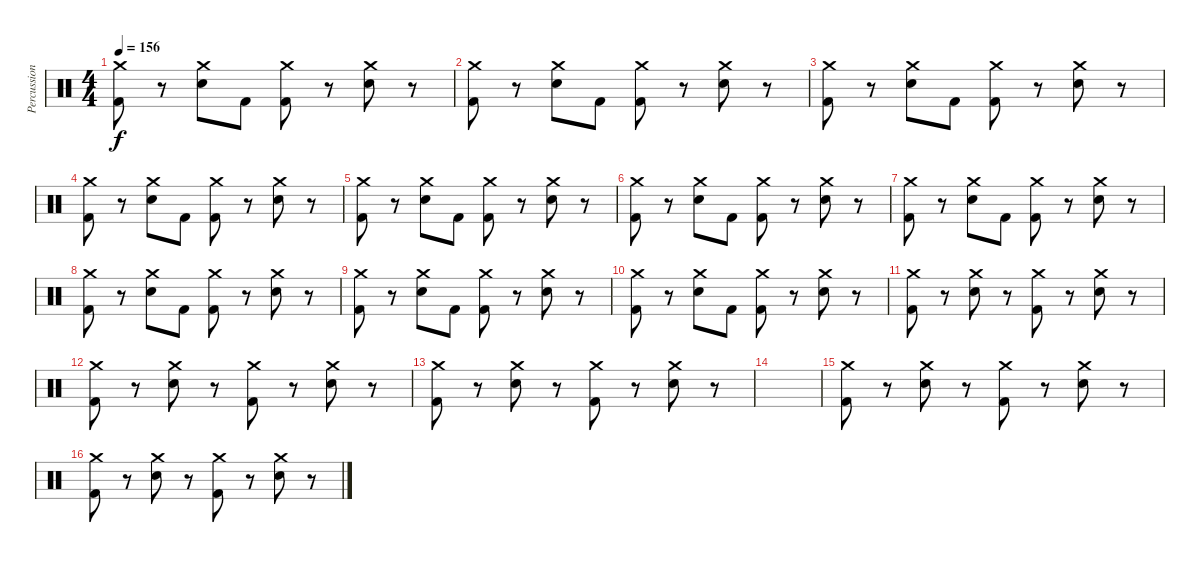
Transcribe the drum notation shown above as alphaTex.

\track ("Percussions" "Percussion") {instrument percussion}
\staff {score}
\articulation defaults
\ts (4 4)
\tempo 156
\clef neutral
\ks c
("Crash medium (hit)" "Kick (hit) 2").8{dy f} r.8 ("Crash medium (hit)" "Electric Snare (hit)").8 "Kick (hit) 2".8 ("Crash medium (hit)" "Kick (hit) 2").8 r.8 ("Crash medium (hit)" "Electric Snare (hit)").8 r.8 |
("Crash medium (hit)" "Kick (hit) 2").8 r.8 ("Crash medium (hit)" "Electric Snare (hit)").8 "Kick (hit) 2".8 ("Crash medium (hit)" "Kick (hit) 2").8 r.8 ("Crash medium (hit)" "Electric Snare (hit)").8 r.8 |
("Crash medium (hit)" "Kick (hit) 2").8 r.8 ("Crash medium (hit)" "Electric Snare (hit)").8 "Kick (hit) 2".8 ("Crash medium (hit)" "Kick (hit) 2").8 r.8 ("Crash medium (hit)" "Electric Snare (hit)").8 r.8 |
("Crash medium (hit)" "Kick (hit) 2").8 r.8 ("Crash medium (hit)" "Electric Snare (hit)").8 "Kick (hit) 2".8 ("Crash medium (hit)" "Kick (hit) 2").8 r.8 ("Crash medium (hit)" "Electric Snare (hit)").8 r.8 |
("Crash medium (hit)" "Kick (hit) 2").8 r.8 ("Crash medium (hit)" "Electric Snare (hit)").8 "Kick (hit) 2".8 ("Crash medium (hit)" "Kick (hit) 2").8 r.8 ("Crash medium (hit)" "Electric Snare (hit)").8 r.8 |
("Crash medium (hit)" "Kick (hit) 2").8 r.8 ("Crash medium (hit)" "Electric Snare (hit)").8 "Kick (hit) 2".8 ("Crash medium (hit)" "Kick (hit) 2").8 r.8 ("Crash medium (hit)" "Electric Snare (hit)").8 r.8 |
("Crash medium (hit)" "Kick (hit) 2").8 r.8 ("Crash medium (hit)" "Electric Snare (hit)").8 "Kick (hit) 2".8 ("Crash medium (hit)" "Kick (hit) 2").8 r.8 ("Crash medium (hit)" "Electric Snare (hit)").8 r.8 |
("Crash medium (hit)" "Kick (hit) 2").8 r.8 ("Crash medium (hit)" "Electric Snare (hit)").8 "Kick (hit) 2".8 ("Crash medium (hit)" "Kick (hit) 2").8 r.8 ("Crash medium (hit)" "Electric Snare (hit)").8 r.8 |
("Crash medium (hit)" "Kick (hit) 2").8 r.8 ("Crash medium (hit)" "Electric Snare (hit)").8 "Kick (hit) 2".8 ("Crash medium (hit)" "Kick (hit) 2").8 r.8 ("Crash medium (hit)" "Electric Snare (hit)").8 r.8 |
("Crash medium (hit)" "Kick (hit) 2").8 r.8 ("Crash medium (hit)" "Electric Snare (hit)").8 "Kick (hit) 2".8 ("Crash medium (hit)" "Kick (hit) 2").8 r.8 ("Crash medium (hit)" "Electric Snare (hit)").8 r.8 |
("Crash medium (hit)" "Kick (hit) 2").8 r.8 ("Crash medium (hit)" "Electric Snare (hit)").8 r.8 ("Crash medium (hit)" "Kick (hit) 2").8 r.8 ("Crash medium (hit)" "Electric Snare (hit)").8 r.8 |
("Crash medium (hit)" "Kick (hit) 2").8 r.8 ("Crash medium (hit)" "Electric Snare (hit)").8 r.8 ("Crash medium (hit)" "Kick (hit) 2").8 r.8 ("Crash medium (hit)" "Electric Snare (hit)").8 r.8 |
("Crash medium (hit)" "Kick (hit) 2").8 r.8 ("Crash medium (hit)" "Electric Snare (hit)").8 r.8 ("Crash medium (hit)" "Kick (hit) 2").8 r.8 ("Crash medium (hit)" "Electric Snare (hit)").8 r.8 |
|
("Crash medium (hit)" "Kick (hit) 2").8 r.8 ("Crash medium (hit)" "Electric Snare (hit)").8 r.8 ("Crash medium (hit)" "Kick (hit) 2").8 r.8 ("Crash medium (hit)" "Electric Snare (hit)").8 r.8 |
("Crash medium (hit)" "Kick (hit) 2").8 r.8 ("Crash medium (hit)" "Electric Snare (hit)").8 r.8 ("Crash medium (hit)" "Kick (hit) 2").8 r.8 ("Crash medium (hit)" "Electric Snare (hit)").8 r.8
